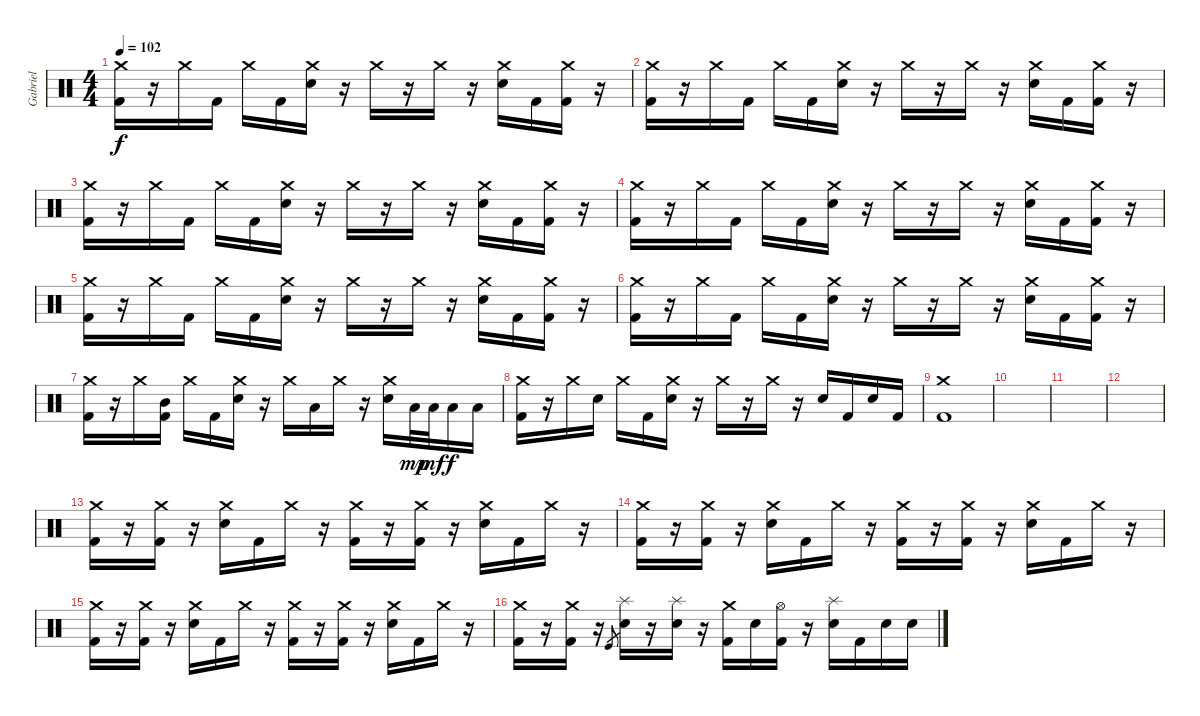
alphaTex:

\track ("Gabriel" "Gabriel") {instrument percussion}
\staff {score}
\articulation defaults
\ts (4 4)
\tempo 102
\clef neutral
\ks c
("Crash medium (hit)" "Kick (hit) 2").16{dy f} r.16 "Crash medium (hit)".16 "Kick (hit) 2".16 "Crash medium (hit)".16 "Kick (hit) 2".16 ("Crash medium (hit)" "Electric Snare (hit)").16 r.16 "Crash medium (hit)".16 r.16 "Crash medium (hit)".16 r.16 ("Crash medium (hit)" "Electric Snare (hit)").16 "Kick (hit) 2".16 ("Crash medium (hit)" "Kick (hit) 2").16 r.16 |
("Crash medium (hit)" "Kick (hit) 2").16 r.16 "Crash medium (hit)".16 "Kick (hit) 2".16 "Crash medium (hit)".16 "Kick (hit) 2".16 ("Crash medium (hit)" "Electric Snare (hit)").16 r.16 "Crash medium (hit)".16 r.16 "Crash medium (hit)".16 r.16 ("Crash medium (hit)" "Electric Snare (hit)").16 "Kick (hit) 2".16 ("Crash medium (hit)" "Kick (hit) 2").16 r.16 |
("Crash medium (hit)" "Kick (hit) 2").16 r.16 "Crash medium (hit)".16 "Kick (hit) 2".16 "Crash medium (hit)".16 "Kick (hit) 2".16 ("Crash medium (hit)" "Electric Snare (hit)").16 r.16 "Crash medium (hit)".16 r.16 "Crash medium (hit)".16 r.16 ("Crash medium (hit)" "Electric Snare (hit)").16 "Kick (hit) 2".16 ("Crash medium (hit)" "Kick (hit) 2").16 r.16 |
("Crash medium (hit)" "Kick (hit) 2").16 r.16 "Crash medium (hit)".16 "Kick (hit) 2".16 "Crash medium (hit)".16 "Kick (hit) 2".16 ("Crash medium (hit)" "Electric Snare (hit)").16 r.16 "Crash medium (hit)".16 r.16 "Crash medium (hit)".16 r.16 ("Crash medium (hit)" "Electric Snare (hit)").16 "Kick (hit) 2".16 ("Crash medium (hit)" "Kick (hit) 2").16 r.16 |
("Crash medium (hit)" "Kick (hit) 2").16 r.16 "Crash medium (hit)".16 "Kick (hit) 2".16 "Crash medium (hit)".16 "Kick (hit) 2".16 ("Crash medium (hit)" "Electric Snare (hit)").16 r.16 "Crash medium (hit)".16 r.16 "Crash medium (hit)".16 r.16 ("Crash medium (hit)" "Electric Snare (hit)").16 "Kick (hit) 2".16 ("Crash medium (hit)" "Kick (hit) 2").16 r.16 |
("Crash medium (hit)" "Kick (hit) 2").16 r.16 "Crash medium (hit)".16 "Kick (hit) 2".16 "Crash medium (hit)".16 "Kick (hit) 2".16 ("Crash medium (hit)" "Electric Snare (hit)").16 r.16 "Crash medium (hit)".16 r.16 "Crash medium (hit)".16 r.16 ("Crash medium (hit)" "Electric Snare (hit)").16 "Kick (hit) 2".16 ("Crash medium (hit)" "Kick (hit) 2").16 r.16 |
("Crash medium (hit)" "Kick (hit) 2").16 r.16 "Crash medium (hit)".16 ("Mid Tom (hit)" "Kick (hit) 2").16 "Crash medium (hit)".16 "Kick (hit) 2".16 ("Crash medium (hit)" "Electric Snare (hit)").16 r.16 "Crash medium (hit)".16 "Low Tom (hit)".16 "Crash medium (hit)".16 r.16 ("Crash medium (hit)" "Electric Snare (hit)").16 "Low Tom (hit)".32{dy mp} "Low Tom (hit)".32{dy mf} "Low Tom (hit)".16{dy f} "Low Tom (hit)".16 |
("Crash medium (hit)" "Kick (hit) 2").16 r.16 "Crash medium (hit)".16 "Electric Snare (hit)".16 "Crash medium (hit)".16 "Kick (hit) 2".16 ("Crash medium (hit)" "Electric Snare (hit)").16 r.16 "Crash medium (hit)".16 r.16 "Crash medium (hit)".16 r.16 "Electric Snare (hit)".16 "Kick (hit) 2".16 "Electric Snare (hit)".16 "Kick (hit) 2".16 |
("Crash medium (hit)" "Kick (hit) 2").1 |
|
|
|
("Crash medium (hit)" "Kick (hit) 2").16 r.16 ("Crash medium (hit)" "Kick (hit) 2").16 r.16 ("Crash medium (hit)" "Electric Snare (hit)").16 "Kick (hit) 2".16 "Crash medium (hit)".16 r.16 ("Crash medium (hit)" "Kick (hit) 2").16 r.16 ("Crash medium (hit)" "Kick (hit) 2").16 r.16 ("Crash medium (hit)" "Electric Snare (hit)").16 "Kick (hit) 2".16 "Crash medium (hit)".16 r.16 |
("Crash medium (hit)" "Kick (hit) 2").16 r.16 ("Crash medium (hit)" "Kick (hit) 2").16 r.16 ("Crash medium (hit)" "Electric Snare (hit)").16 "Kick (hit) 2".16 "Crash medium (hit)".16 r.16 ("Crash medium (hit)" "Kick (hit) 2").16 r.16 ("Crash medium (hit)" "Kick (hit) 2").16 r.16 ("Crash medium (hit)" "Electric Snare (hit)").16 "Kick (hit) 2".16 "Crash medium (hit)".16 r.16 |
("Crash medium (hit)" "Kick (hit) 2").16 r.16 ("Crash medium (hit)" "Kick (hit) 2").16 r.16 ("Crash medium (hit)" "Electric Snare (hit)").16 "Kick (hit) 2".16 "Crash medium (hit)".16 r.16 ("Crash medium (hit)" "Kick (hit) 2").16 r.16 ("Crash medium (hit)" "Kick (hit) 2").16 r.16 ("Crash medium (hit)" "Electric Snare (hit)").16 "Kick (hit) 2".16 "Crash medium (hit)".16 r.16 |
("Crash medium (hit)" "Kick (hit) 2").16 r.16 ("Crash medium (hit)" "Kick (hit) 2").16 r.16 "Kick (hit)".8{gr} ("Splash (hit)" "Electric Snare (hit)").16 r.16 ("Splash (hit)" "Electric Snare (hit)").16 r.16 ("Crash medium (hit)" "Kick (hit) 2").16 "Electric Snare (hit)".16 ("Hi-Hat (open)" "Kick (hit) 2").16 r.16 ("Splash (hit)" "Electric Snare (hit)").16 "Kick (hit) 2".16 "Electric Snare (hit)".16 "Electric Snare (hit)".16
